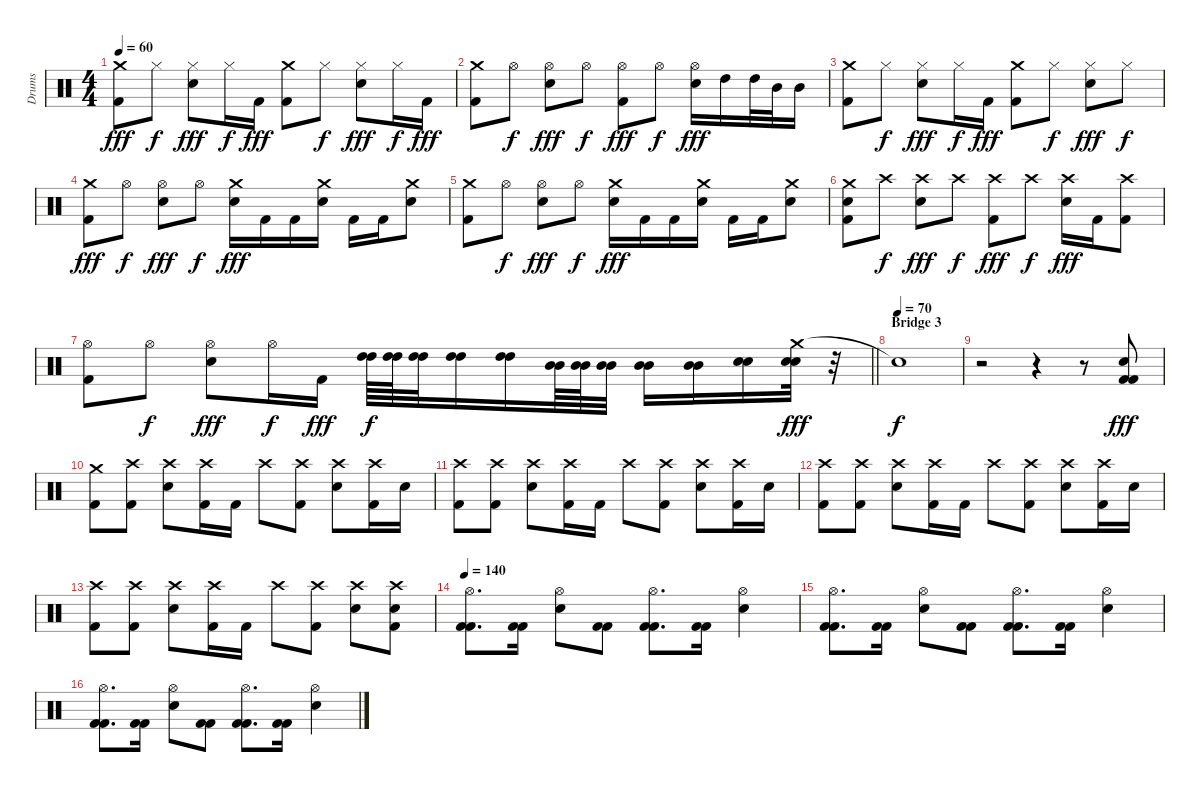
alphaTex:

\track ("Drums" "Drums") {instrument percussion}
\staff {score}
\articulation defaults
\ts (4 4)
\tempo 60
\clef neutral
\ks c
("Crash medium (hit)" "Kick (hit) 2").8{dy fff} "Hi-Hat (closed)".8{dy f} ("Hi-Hat (closed)" "Snare (hit) 2").8{dy fff} "Hi-Hat (closed)".16{dy f} "Kick (hit) 2".16{dy fff} ("Crash medium (hit)" "Kick (hit) 2").8 "Hi-Hat (closed)".8{dy f} ("Hi-Hat (closed)" "Snare (hit) 2").8{dy fff} "Hi-Hat (closed)".16{dy f} "Kick (hit) 2".16{dy fff} |
("Crash medium (hit)" "Kick (hit) 2").8 "Hi-Hat (open)".8{dy f} ("Hi-Hat (open)" "Snare (hit) 2").8{dy fff} "Hi-Hat (open)".8{dy f} ("Hi-Hat (open)" "Kick (hit) 2").8{dy fff} "Hi-Hat (open)".8{dy f} ("Hi-Hat (open)" "Snare (hit) 2").16{dy fff} "High Tom (hit)".16 "High Tom (hit)".32 "Mid Tom (hit)".32 "Mid Tom (hit)".16 |
("Crash medium (hit)" "Kick (hit) 2").8 "Hi-Hat (closed)".8{dy f} ("Hi-Hat (closed)" "Snare (hit) 2").8{dy fff} "Hi-Hat (closed)".16{dy f} "Kick (hit) 2".16{dy fff} ("Crash medium (hit)" "Kick (hit) 2").8 "Hi-Hat (closed)".8{dy f} ("Hi-Hat (closed)" "Snare (hit) 2").8{dy fff} "Hi-Hat (closed)".8{dy f} |
("Crash medium (hit)" "Kick (hit) 2").8{dy fff} "Hi-Hat (open)".8{dy f} ("Hi-Hat (open)" "Snare (hit) 2").8{dy fff} "Hi-Hat (open)".8{dy f} ("Crash medium (hit)" "Snare (hit) 2").16{dy fff} "Kick (hit) 2".16 "Kick (hit) 2".16 ("Crash medium (hit)" "Snare (hit) 2").16 "Kick (hit) 2".16 "Kick (hit) 2".16 ("Crash medium (hit)" "Snare (hit) 2").8 |
("Crash medium (hit)" "Kick (hit) 2").8 "Hi-Hat (open)".8{dy f} ("Hi-Hat (open)" "Snare (hit) 2").8{dy fff} "Hi-Hat (open)".8{dy f} ("Crash medium (hit)" "Snare (hit) 2").16{dy fff} "Kick (hit) 2".16 "Kick (hit) 2".16 ("Crash medium (hit)" "Snare (hit) 2").16 "Kick (hit) 2".16 "Kick (hit) 2".16 ("Crash medium (hit)" "Snare (hit) 2").8 |
("Crash medium (hit)" "Snare (hit) 2" "Kick (hit) 2").8 "Crash high (hit)".8{dy f} ("Crash high (hit)" "Snare (hit) 2").8{dy fff} "Crash high (hit)".8{dy f} ("Crash high (hit)" "Kick (hit) 2").8{dy fff} "Crash high (hit)".8{dy f} ("Crash high (hit)" "Snare (hit) 2").16{dy fff} "Kick (hit) 2".16 ("Crash high (hit)" "Kick (hit) 2").8 |
\barLineRight lightlight
("Hi-Hat (open)" "Kick (hit) 2").8 "Hi-Hat (open)".8{dy f} ("Hi-Hat (open)" "Snare (hit) 2").8{dy fff} "Hi-Hat (open)".16{dy f} "Kick (hit) 2".16{dy fff} ("High Tom (hit)" "High Tom (hit)").64{dy f} ("High Tom (hit)" "High Tom (hit)").64 ("High Tom (hit)" "High Tom (hit)").32 ("High Tom (hit)" "High Tom (hit)").16 ("High Tom (hit)" "High Tom (hit)").16 ("Mid Tom (hit)" "Mid Tom (hit)").64 ("Mid Tom (hit)" "Mid Tom (hit)").64 ("Mid Tom (hit)" "Mid Tom (hit)").32 ("Mid Tom (hit)" "Mid Tom (hit)").16 ("Mid Tom (hit)" "Mid Tom (hit)").16 ("Snare (hit) 2" "Snare (hit) 2").16 ("Crash medium (hit)" "Snare (hit) 2" "Snare (hit) 2").32{dy fff} r.32 |
\section ("" "Bridge 3")
\tempo (70)
"Snare (hit)"{t}.1{dy f} |
r.2 r.4 r.8 ("Snare (hit) 2" "Kick (hit) 2" "Kick (hit) 2").8{dy fff} |
("Crash medium (hit)" "Kick (hit) 2").8 ("Crash high (hit)" "Kick (hit) 2").8 ("Crash high (hit)" "Snare (hit) 2").8 ("Crash high (hit)" "Kick (hit) 2").16 "Kick (hit) 2".16 "Crash high (hit)".8 ("Crash high (hit)" "Kick (hit) 2").8 ("Crash high (hit)" "Snare (hit) 2").8 ("Crash high (hit)" "Kick (hit) 2").16 "Snare (hit) 2".16 |
("Crash high (hit)" "Kick (hit) 2").8 ("Crash high (hit)" "Kick (hit) 2").8 ("Crash high (hit)" "Snare (hit) 2").8 ("Crash high (hit)" "Kick (hit) 2").16 "Kick (hit) 2".16 "Crash high (hit)".8 ("Crash high (hit)" "Kick (hit) 2").8 ("Crash high (hit)" "Snare (hit) 2").8 ("Crash high (hit)" "Kick (hit) 2").16 "Snare (hit) 2".16 |
("Crash high (hit)" "Kick (hit) 2").8 ("Crash high (hit)" "Kick (hit) 2").8 ("Crash high (hit)" "Snare (hit) 2").8 ("Crash high (hit)" "Kick (hit) 2").16 "Kick (hit) 2".16 "Crash high (hit)".8 ("Crash high (hit)" "Kick (hit) 2").8 ("Crash high (hit)" "Snare (hit) 2").8 ("Crash high (hit)" "Kick (hit) 2").16 "Snare (hit) 2".16 |
("Crash high (hit)" "Kick (hit) 2").8 ("Crash high (hit)" "Kick (hit) 2").8 ("Crash high (hit)" "Snare (hit) 2").8 ("Crash high (hit)" "Kick (hit) 2").16 "Kick (hit) 2".16 "Crash high (hit)".8 ("Crash high (hit)" "Kick (hit) 2").8 ("Crash high (hit)" "Snare (hit) 2").8 ("Crash high (hit)" "Snare (hit) 2" "Kick (hit) 2").8 |
\tempo 140
("Hi-Hat (open)" "Kick (hit) 2" "Kick (hit) 2").8{d} ("Kick (hit) 2" "Kick (hit) 2").16 ("Hi-Hat (open)" "Snare (hit) 2").8 ("Kick (hit) 2" "Kick (hit) 2").8 ("Hi-Hat (open)" "Kick (hit) 2" "Kick (hit) 2").8{d} ("Kick (hit) 2" "Kick (hit) 2").16 ("Hi-Hat (open)" "Snare (hit) 2").4 |
("Hi-Hat (open)" "Kick (hit) 2" "Kick (hit) 2").8{d} ("Kick (hit) 2" "Kick (hit) 2").16 ("Hi-Hat (open)" "Snare (hit) 2").8 ("Kick (hit) 2" "Kick (hit) 2").8 ("Hi-Hat (open)" "Kick (hit) 2" "Kick (hit) 2").8{d} ("Kick (hit) 2" "Kick (hit) 2").16 ("Hi-Hat (open)" "Snare (hit) 2").4 |
("Hi-Hat (open)" "Kick (hit) 2" "Kick (hit) 2").8{d} ("Kick (hit) 2" "Kick (hit) 2").16 ("Hi-Hat (open)" "Snare (hit) 2").8 ("Kick (hit) 2" "Kick (hit) 2").8 ("Hi-Hat (open)" "Kick (hit) 2" "Kick (hit) 2").8{d} ("Kick (hit) 2" "Kick (hit) 2").16 ("Hi-Hat (open)" "Snare (hit) 2").4
